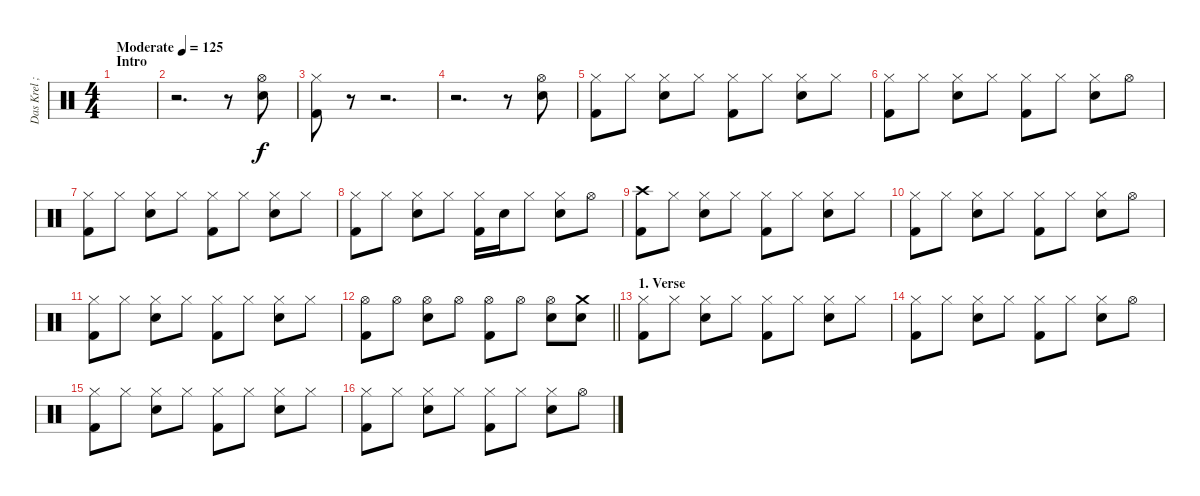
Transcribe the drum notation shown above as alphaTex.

\track ("Das Krel ;-)" "Das Krel ;") {instrument percussion}
\staff {score}
\articulation defaults
\ts (4 4)
\section ("" "Intro")
\tempo (125 "Moderate")
\clef neutral
\ks c
|
r.2{d} r.8 ("Hi-Hat (open)" "Snare (hit) 2").8 |
("Hi-Hat (closed)" "Kick (hit) 2").8 r.8 r.2{d} |
r.2{d} r.8 ("Hi-Hat (open)" "Snare (hit) 2").8 |
("Hi-Hat (closed)" "Kick (hit) 2").8 "Hi-Hat (closed)".8 ("Hi-Hat (closed)" "Snare (hit) 2").8 "Hi-Hat (closed)".8 ("Hi-Hat (closed)" "Kick (hit) 2").8 "Hi-Hat (closed)".8 ("Hi-Hat (closed)" "Snare (hit) 2").8 "Hi-Hat (closed)".8 |
("Hi-Hat (closed)" "Kick (hit) 2").8 "Hi-Hat (closed)".8 ("Hi-Hat (closed)" "Snare (hit) 2").8 "Hi-Hat (closed)".8 ("Hi-Hat (closed)" "Kick (hit) 2").8 "Hi-Hat (closed)".8 ("Hi-Hat (closed)" "Snare (hit) 2").8 "Hi-Hat (open)".8 |
("Hi-Hat (closed)" "Kick (hit) 2").8 "Hi-Hat (closed)".8 ("Hi-Hat (closed)" "Snare (hit) 2").8 "Hi-Hat (closed)".8 ("Hi-Hat (closed)" "Kick (hit) 2").8 "Hi-Hat (closed)".8 ("Hi-Hat (closed)" "Snare (hit) 2").8 "Hi-Hat (closed)".8 |
("Hi-Hat (closed)" "Kick (hit) 2").8 "Hi-Hat (closed)".8 ("Hi-Hat (closed)" "Snare (hit) 2").8 "Hi-Hat (closed)".8 ("Hi-Hat (closed)" "Kick (hit) 2").16 "Snare (hit) 2".16 "Hi-Hat (closed)".8 ("Hi-Hat (closed)" "Snare (hit) 2").8 "Hi-Hat (open)".8 |
("Crash high (hit)" "Kick (hit) 2").8 "Hi-Hat (closed)".8 ("Hi-Hat (closed)" "Snare (hit) 2").8 "Hi-Hat (closed)".8 ("Hi-Hat (closed)" "Kick (hit) 2").8 "Hi-Hat (closed)".8 ("Hi-Hat (closed)" "Snare (hit) 2").8 "Hi-Hat (closed)".8 |
("Hi-Hat (closed)" "Kick (hit) 2").8 "Hi-Hat (closed)".8 ("Hi-Hat (closed)" "Snare (hit) 2").8 "Hi-Hat (closed)".8 ("Hi-Hat (closed)" "Kick (hit) 2").8 "Hi-Hat (closed)".8 ("Hi-Hat (closed)" "Snare (hit) 2").8 "Hi-Hat (open)".8 |
("Hi-Hat (closed)" "Kick (hit) 2").8 "Hi-Hat (closed)".8 ("Hi-Hat (closed)" "Snare (hit) 2").8 "Hi-Hat (closed)".8 ("Hi-Hat (closed)" "Kick (hit) 2").8 "Hi-Hat (closed)".8 ("Hi-Hat (closed)" "Snare (hit) 2").8 "Hi-Hat (closed)".8 |
\barLineRight lightlight
("Hi-Hat (open)" "Kick (hit) 2").8 "Hi-Hat (open)".8 ("Hi-Hat (open)" "Snare (hit) 2").8 "Hi-Hat (open)".8 ("Hi-Hat (open)" "Kick (hit) 2").8 "Hi-Hat (open)".8 ("Hi-Hat (open)" "Snare (hit) 2").8 ("Crash medium (hit)" "Snare (hit) 2").8 |
\section ("" "1. Verse")
("Hi-Hat (closed)" "Kick (hit) 2").8 "Hi-Hat (closed)".8 ("Hi-Hat (closed)" "Snare (hit) 2").8 "Hi-Hat (closed)".8 ("Hi-Hat (closed)" "Kick (hit) 2").8 "Hi-Hat (closed)".8 ("Hi-Hat (closed)" "Snare (hit) 2").8 "Hi-Hat (closed)".8 |
("Hi-Hat (closed)" "Kick (hit) 2").8 "Hi-Hat (closed)".8 ("Hi-Hat (closed)" "Snare (hit) 2").8 "Hi-Hat (closed)".8 ("Hi-Hat (closed)" "Kick (hit) 2").8 "Hi-Hat (closed)".8 ("Hi-Hat (closed)" "Snare (hit) 2").8 "Hi-Hat (open)".8 |
("Hi-Hat (closed)" "Kick (hit) 2").8 "Hi-Hat (closed)".8 ("Hi-Hat (closed)" "Snare (hit) 2").8 "Hi-Hat (closed)".8 ("Hi-Hat (closed)" "Kick (hit) 2").8 "Hi-Hat (closed)".8 ("Hi-Hat (closed)" "Snare (hit) 2").8 "Hi-Hat (closed)".8 |
("Hi-Hat (closed)" "Kick (hit) 2").8 "Hi-Hat (closed)".8 ("Hi-Hat (closed)" "Snare (hit) 2").8 "Hi-Hat (closed)".8 ("Hi-Hat (closed)" "Kick (hit) 2").8 "Hi-Hat (closed)".8 ("Hi-Hat (closed)" "Snare (hit) 2").8 "Hi-Hat (open)".8
